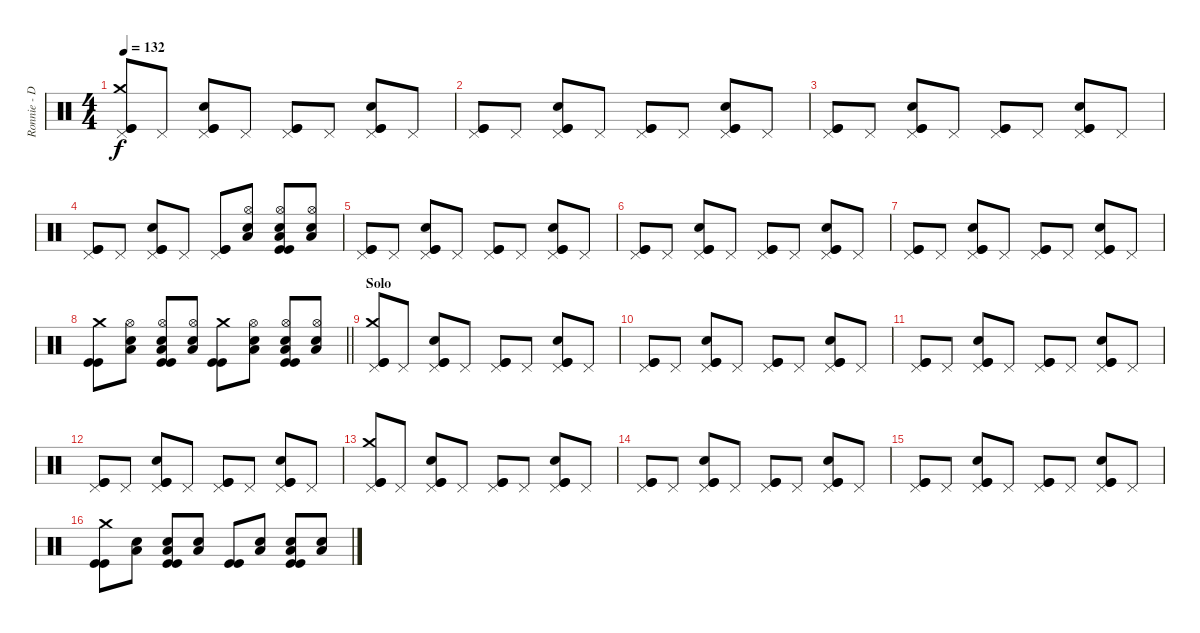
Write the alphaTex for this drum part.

\track ("Ronnie - Drums" "Ronnie - D") {instrument percussion}
\staff {score}
\articulation defaults
\ts (4 4)
\tempo 132
\clef neutral
\ks c
("Pedal Hi-Hat (hit)" "Crash medium (hit)" "Kick (hit)" "Kick (hit)").8{dy f} "Pedal Hi-Hat (hit)".8 ("Pedal Hi-Hat (hit)" "Electric Snare (hit)" "Kick (hit)" "Kick (hit)").8 "Pedal Hi-Hat (hit)".8 ("Pedal Hi-Hat (hit)" "Kick (hit)" "Kick (hit)").8 "Pedal Hi-Hat (hit)".8 ("Pedal Hi-Hat (hit)" "Electric Snare (hit)" "Kick (hit)" "Kick (hit)").8 "Pedal Hi-Hat (hit)".8 |
("Pedal Hi-Hat (hit)" "Kick (hit)" "Kick (hit)").8 "Pedal Hi-Hat (hit)".8 ("Pedal Hi-Hat (hit)" "Electric Snare (hit)" "Kick (hit)" "Kick (hit)").8 "Pedal Hi-Hat (hit)".8 ("Pedal Hi-Hat (hit)" "Kick (hit)" "Kick (hit)").8 "Pedal Hi-Hat (hit)".8 ("Pedal Hi-Hat (hit)" "Electric Snare (hit)" "Kick (hit)" "Kick (hit)").8 "Pedal Hi-Hat (hit)".8 |
("Pedal Hi-Hat (hit)" "Kick (hit)" "Kick (hit)").8 "Pedal Hi-Hat (hit)".8 ("Pedal Hi-Hat (hit)" "Electric Snare (hit)" "Kick (hit)" "Kick (hit)").8 "Pedal Hi-Hat (hit)".8 ("Pedal Hi-Hat (hit)" "Kick (hit)" "Kick (hit)").8 "Pedal Hi-Hat (hit)".8 ("Pedal Hi-Hat (hit)" "Electric Snare (hit)" "Kick (hit)" "Kick (hit)").8 "Pedal Hi-Hat (hit)".8 |
("Pedal Hi-Hat (hit)" "Kick (hit)" "Kick (hit)").8 "Pedal Hi-Hat (hit)".8 ("Pedal Hi-Hat (hit)" "Electric Snare (hit)" "Kick (hit)" "Kick (hit)").8 "Pedal Hi-Hat (hit)".8 ("Pedal Hi-Hat (hit)" "Kick (hit)" "Kick (hit)").8 ("Hi-Hat (open)" "Low Floor Tom (hit)" "Electric Snare (hit)").8 ("Hi-Hat (open)" "Low Floor Tom (hit)" "Electric Snare (hit)" "Kick (hit)" "Kick (hit)").8 ("Hi-Hat (open)" "Low Floor Tom (hit)" "Electric Snare (hit)").8 |
("Pedal Hi-Hat (hit)" "Kick (hit)" "Kick (hit)").8 "Pedal Hi-Hat (hit)".8 ("Pedal Hi-Hat (hit)" "Electric Snare (hit)" "Kick (hit)" "Kick (hit)").8 "Pedal Hi-Hat (hit)".8 ("Pedal Hi-Hat (hit)" "Kick (hit)" "Kick (hit)").8 "Pedal Hi-Hat (hit)".8 ("Pedal Hi-Hat (hit)" "Electric Snare (hit)" "Kick (hit)" "Kick (hit)").8 "Pedal Hi-Hat (hit)".8 |
("Pedal Hi-Hat (hit)" "Kick (hit)" "Kick (hit)").8 "Pedal Hi-Hat (hit)".8 ("Pedal Hi-Hat (hit)" "Electric Snare (hit)" "Kick (hit)" "Kick (hit)").8 "Pedal Hi-Hat (hit)".8 ("Pedal Hi-Hat (hit)" "Kick (hit)" "Kick (hit)").8 "Pedal Hi-Hat (hit)".8 ("Pedal Hi-Hat (hit)" "Electric Snare (hit)" "Kick (hit)" "Kick (hit)").8 "Pedal Hi-Hat (hit)".8 |
("Pedal Hi-Hat (hit)" "Kick (hit)" "Kick (hit)").8 "Pedal Hi-Hat (hit)".8 ("Pedal Hi-Hat (hit)" "Electric Snare (hit)" "Kick (hit)" "Kick (hit)").8 "Pedal Hi-Hat (hit)".8 ("Pedal Hi-Hat (hit)" "Kick (hit)" "Kick (hit)").8 "Pedal Hi-Hat (hit)".8 ("Pedal Hi-Hat (hit)" "Electric Snare (hit)" "Kick (hit)" "Kick (hit)").8 "Pedal Hi-Hat (hit)".8 |
\barLineRight lightlight
("Crash medium (hit)" "Kick (hit)" "Kick (hit)").8 ("Hi-Hat (open)" "Electric Snare (hit)" "Low Floor Tom (hit)").8 ("Hi-Hat (open)" "Electric Snare (hit)" "Low Floor Tom (hit)" "Kick (hit)" "Kick (hit)").8 ("Hi-Hat (open)" "Electric Snare (hit)" "Low Floor Tom (hit)").8 ("Crash medium (hit)" "Kick (hit)" "Kick (hit)").8 ("Hi-Hat (open)" "Electric Snare (hit)" "Low Floor Tom (hit)").8 ("Hi-Hat (open)" "Electric Snare (hit)" "Low Floor Tom (hit)" "Kick (hit)" "Kick (hit)").8 ("Hi-Hat (open)" "Electric Snare (hit)" "Low Floor Tom (hit)").8 |
\section ("" "Solo")
("Pedal Hi-Hat (hit)" "Crash medium (hit)" "Kick (hit)" "Kick (hit)").8 "Pedal Hi-Hat (hit)".8 ("Pedal Hi-Hat (hit)" "Electric Snare (hit)" "Kick (hit)" "Kick (hit)").8 "Pedal Hi-Hat (hit)".8 ("Pedal Hi-Hat (hit)" "Kick (hit)" "Kick (hit)").8 "Pedal Hi-Hat (hit)".8 ("Pedal Hi-Hat (hit)" "Electric Snare (hit)" "Kick (hit)" "Kick (hit)").8 "Pedal Hi-Hat (hit)".8 |
("Pedal Hi-Hat (hit)" "Kick (hit)" "Kick (hit)").8 "Pedal Hi-Hat (hit)".8 ("Pedal Hi-Hat (hit)" "Electric Snare (hit)" "Kick (hit)" "Kick (hit)").8 "Pedal Hi-Hat (hit)".8 ("Pedal Hi-Hat (hit)" "Kick (hit)" "Kick (hit)").8 "Pedal Hi-Hat (hit)".8 ("Pedal Hi-Hat (hit)" "Electric Snare (hit)" "Kick (hit)" "Kick (hit)").8 "Pedal Hi-Hat (hit)".8 |
("Pedal Hi-Hat (hit)" "Kick (hit)" "Kick (hit)").8 "Pedal Hi-Hat (hit)".8 ("Pedal Hi-Hat (hit)" "Electric Snare (hit)" "Kick (hit)" "Kick (hit)").8 "Pedal Hi-Hat (hit)".8 ("Pedal Hi-Hat (hit)" "Kick (hit)" "Kick (hit)").8 "Pedal Hi-Hat (hit)".8 ("Pedal Hi-Hat (hit)" "Electric Snare (hit)" "Kick (hit)" "Kick (hit)").8 "Pedal Hi-Hat (hit)".8 |
("Pedal Hi-Hat (hit)" "Kick (hit)" "Kick (hit)").8 "Pedal Hi-Hat (hit)".8 ("Pedal Hi-Hat (hit)" "Electric Snare (hit)" "Kick (hit)" "Kick (hit)").8 "Pedal Hi-Hat (hit)".8 ("Pedal Hi-Hat (hit)" "Kick (hit)" "Kick (hit)").8 "Pedal Hi-Hat (hit)".8 ("Pedal Hi-Hat (hit)" "Electric Snare (hit)" "Kick (hit)" "Kick (hit)").8 "Pedal Hi-Hat (hit)".8 |
("Pedal Hi-Hat (hit)" "Crash medium (hit)" "Kick (hit)" "Kick (hit)").8 "Pedal Hi-Hat (hit)".8 ("Pedal Hi-Hat (hit)" "Electric Snare (hit)" "Kick (hit)" "Kick (hit)").8 "Pedal Hi-Hat (hit)".8 ("Pedal Hi-Hat (hit)" "Kick (hit)" "Kick (hit)").8 "Pedal Hi-Hat (hit)".8 ("Pedal Hi-Hat (hit)" "Electric Snare (hit)" "Kick (hit)" "Kick (hit)").8 "Pedal Hi-Hat (hit)".8 |
("Pedal Hi-Hat (hit)" "Kick (hit)" "Kick (hit)").8 "Pedal Hi-Hat (hit)".8 ("Pedal Hi-Hat (hit)" "Electric Snare (hit)" "Kick (hit)" "Kick (hit)").8 "Pedal Hi-Hat (hit)".8 ("Pedal Hi-Hat (hit)" "Kick (hit)" "Kick (hit)").8 "Pedal Hi-Hat (hit)".8 ("Pedal Hi-Hat (hit)" "Electric Snare (hit)" "Kick (hit)" "Kick (hit)").8 "Pedal Hi-Hat (hit)".8 |
("Pedal Hi-Hat (hit)" "Kick (hit)" "Kick (hit)").8 "Pedal Hi-Hat (hit)".8 ("Pedal Hi-Hat (hit)" "Electric Snare (hit)" "Kick (hit)" "Kick (hit)").8 "Pedal Hi-Hat (hit)".8 ("Pedal Hi-Hat (hit)" "Kick (hit)" "Kick (hit)").8 "Pedal Hi-Hat (hit)".8 ("Pedal Hi-Hat (hit)" "Electric Snare (hit)" "Kick (hit)" "Kick (hit)").8 "Pedal Hi-Hat (hit)".8 |
("Crash medium (hit)" "Kick (hit)" "Kick (hit)").8 ("Electric Snare (hit)" "Low Floor Tom (hit)").8 ("Electric Snare (hit)" "Low Floor Tom (hit)" "Kick (hit)" "Kick (hit)").8 ("Electric Snare (hit)" "Low Floor Tom (hit)").8 ("Kick (hit)" "Kick (hit)").8 ("Electric Snare (hit)" "Low Floor Tom (hit)").8 ("Electric Snare (hit)" "Low Floor Tom (hit)" "Kick (hit)" "Kick (hit)").8 ("Electric Snare (hit)" "Low Floor Tom (hit)").8
